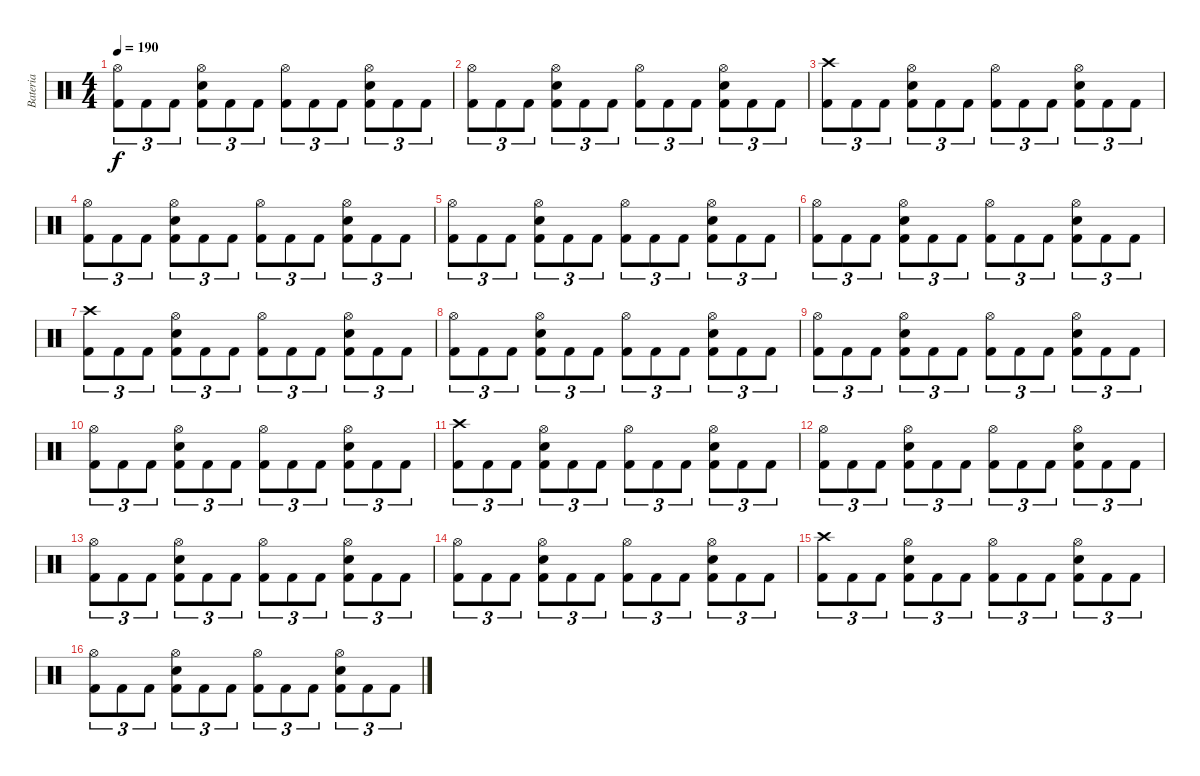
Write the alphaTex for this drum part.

\track ("Bateria" "Bateria") {instrument percussion}
\staff {score}
\articulation defaults
\ts (4 4)
\tempo 190
\clef neutral
\ks c
("Hi-Hat (open)" "Kick (hit) 2").8{tu (3 2) dy f} "Kick (hit) 2".8{tu (3 2)} "Kick (hit) 2".8{tu (3 2)} ("Hi-Hat (open)" "Electric Snare (hit)" "Kick (hit) 2").8{tu (3 2)} "Kick (hit) 2".8{tu (3 2)} "Kick (hit) 2".8{tu (3 2)} ("Hi-Hat (open)" "Kick (hit) 2").8{tu (3 2)} "Kick (hit) 2".8{tu (3 2)} "Kick (hit) 2".8{tu (3 2)} ("Hi-Hat (open)" "Electric Snare (hit)" "Kick (hit) 2").8{tu (3 2)} "Kick (hit) 2".8{tu (3 2)} "Kick (hit) 2".8{tu (3 2)} |
("Hi-Hat (open)" "Kick (hit) 2").8{tu (3 2)} "Kick (hit) 2".8{tu (3 2)} "Kick (hit) 2".8{tu (3 2)} ("Hi-Hat (open)" "Electric Snare (hit)" "Kick (hit) 2").8{tu (3 2)} "Kick (hit) 2".8{tu (3 2)} "Kick (hit) 2".8{tu (3 2)} ("Hi-Hat (open)" "Kick (hit) 2").8{tu (3 2)} "Kick (hit) 2".8{tu (3 2)} "Kick (hit) 2".8{tu (3 2)} ("Hi-Hat (open)" "Electric Snare (hit)" "Kick (hit) 2").8{tu (3 2)} "Kick (hit) 2".8{tu (3 2)} "Kick (hit) 2".8{tu (3 2)} |
("Crash high (hit)" "Kick (hit) 2").8{tu (3 2)} "Kick (hit) 2".8{tu (3 2)} "Kick (hit) 2".8{tu (3 2)} ("Hi-Hat (open)" "Electric Snare (hit)" "Kick (hit) 2").8{tu (3 2)} "Kick (hit) 2".8{tu (3 2)} "Kick (hit) 2".8{tu (3 2)} ("Hi-Hat (open)" "Kick (hit) 2").8{tu (3 2)} "Kick (hit) 2".8{tu (3 2)} "Kick (hit) 2".8{tu (3 2)} ("Hi-Hat (open)" "Electric Snare (hit)" "Kick (hit) 2").8{tu (3 2)} "Kick (hit) 2".8{tu (3 2)} "Kick (hit) 2".8{tu (3 2)} |
("Hi-Hat (open)" "Kick (hit) 2").8{tu (3 2)} "Kick (hit) 2".8{tu (3 2)} "Kick (hit) 2".8{tu (3 2)} ("Hi-Hat (open)" "Electric Snare (hit)" "Kick (hit) 2").8{tu (3 2)} "Kick (hit) 2".8{tu (3 2)} "Kick (hit) 2".8{tu (3 2)} ("Hi-Hat (open)" "Kick (hit) 2").8{tu (3 2)} "Kick (hit) 2".8{tu (3 2)} "Kick (hit) 2".8{tu (3 2)} ("Hi-Hat (open)" "Electric Snare (hit)" "Kick (hit) 2").8{tu (3 2)} "Kick (hit) 2".8{tu (3 2)} "Kick (hit) 2".8{tu (3 2)} |
("Hi-Hat (open)" "Kick (hit) 2").8{tu (3 2)} "Kick (hit) 2".8{tu (3 2)} "Kick (hit) 2".8{tu (3 2)} ("Hi-Hat (open)" "Electric Snare (hit)" "Kick (hit) 2").8{tu (3 2)} "Kick (hit) 2".8{tu (3 2)} "Kick (hit) 2".8{tu (3 2)} ("Hi-Hat (open)" "Kick (hit) 2").8{tu (3 2)} "Kick (hit) 2".8{tu (3 2)} "Kick (hit) 2".8{tu (3 2)} ("Hi-Hat (open)" "Electric Snare (hit)" "Kick (hit) 2").8{tu (3 2)} "Kick (hit) 2".8{tu (3 2)} "Kick (hit) 2".8{tu (3 2)} |
("Hi-Hat (open)" "Kick (hit) 2").8{tu (3 2)} "Kick (hit) 2".8{tu (3 2)} "Kick (hit) 2".8{tu (3 2)} ("Hi-Hat (open)" "Electric Snare (hit)" "Kick (hit) 2").8{tu (3 2)} "Kick (hit) 2".8{tu (3 2)} "Kick (hit) 2".8{tu (3 2)} ("Hi-Hat (open)" "Kick (hit) 2").8{tu (3 2)} "Kick (hit) 2".8{tu (3 2)} "Kick (hit) 2".8{tu (3 2)} ("Hi-Hat (open)" "Electric Snare (hit)" "Kick (hit) 2").8{tu (3 2)} "Kick (hit) 2".8{tu (3 2)} "Kick (hit) 2".8{tu (3 2)} |
("Crash high (hit)" "Kick (hit) 2").8{tu (3 2)} "Kick (hit) 2".8{tu (3 2)} "Kick (hit) 2".8{tu (3 2)} ("Hi-Hat (open)" "Electric Snare (hit)" "Kick (hit) 2").8{tu (3 2)} "Kick (hit) 2".8{tu (3 2)} "Kick (hit) 2".8{tu (3 2)} ("Hi-Hat (open)" "Kick (hit) 2").8{tu (3 2)} "Kick (hit) 2".8{tu (3 2)} "Kick (hit) 2".8{tu (3 2)} ("Hi-Hat (open)" "Electric Snare (hit)" "Kick (hit) 2").8{tu (3 2)} "Kick (hit) 2".8{tu (3 2)} "Kick (hit) 2".8{tu (3 2)} |
("Hi-Hat (open)" "Kick (hit) 2").8{tu (3 2)} "Kick (hit) 2".8{tu (3 2)} "Kick (hit) 2".8{tu (3 2)} ("Hi-Hat (open)" "Electric Snare (hit)" "Kick (hit) 2").8{tu (3 2)} "Kick (hit) 2".8{tu (3 2)} "Kick (hit) 2".8{tu (3 2)} ("Hi-Hat (open)" "Kick (hit) 2").8{tu (3 2)} "Kick (hit) 2".8{tu (3 2)} "Kick (hit) 2".8{tu (3 2)} ("Hi-Hat (open)" "Electric Snare (hit)" "Kick (hit) 2").8{tu (3 2)} "Kick (hit) 2".8{tu (3 2)} "Kick (hit) 2".8{tu (3 2)} |
("Hi-Hat (open)" "Kick (hit) 2").8{tu (3 2)} "Kick (hit) 2".8{tu (3 2)} "Kick (hit) 2".8{tu (3 2)} ("Hi-Hat (open)" "Electric Snare (hit)" "Kick (hit) 2").8{tu (3 2)} "Kick (hit) 2".8{tu (3 2)} "Kick (hit) 2".8{tu (3 2)} ("Hi-Hat (open)" "Kick (hit) 2").8{tu (3 2)} "Kick (hit) 2".8{tu (3 2)} "Kick (hit) 2".8{tu (3 2)} ("Hi-Hat (open)" "Electric Snare (hit)" "Kick (hit) 2").8{tu (3 2)} "Kick (hit) 2".8{tu (3 2)} "Kick (hit) 2".8{tu (3 2)} |
("Hi-Hat (open)" "Kick (hit) 2").8{tu (3 2)} "Kick (hit) 2".8{tu (3 2)} "Kick (hit) 2".8{tu (3 2)} ("Hi-Hat (open)" "Electric Snare (hit)" "Kick (hit) 2").8{tu (3 2)} "Kick (hit) 2".8{tu (3 2)} "Kick (hit) 2".8{tu (3 2)} ("Hi-Hat (open)" "Kick (hit) 2").8{tu (3 2)} "Kick (hit) 2".8{tu (3 2)} "Kick (hit) 2".8{tu (3 2)} ("Hi-Hat (open)" "Electric Snare (hit)" "Kick (hit) 2").8{tu (3 2)} "Kick (hit) 2".8{tu (3 2)} "Kick (hit) 2".8{tu (3 2)} |
("Crash high (hit)" "Kick (hit) 2").8{tu (3 2)} "Kick (hit) 2".8{tu (3 2)} "Kick (hit) 2".8{tu (3 2)} ("Hi-Hat (open)" "Electric Snare (hit)" "Kick (hit) 2").8{tu (3 2)} "Kick (hit) 2".8{tu (3 2)} "Kick (hit) 2".8{tu (3 2)} ("Hi-Hat (open)" "Kick (hit) 2").8{tu (3 2)} "Kick (hit) 2".8{tu (3 2)} "Kick (hit) 2".8{tu (3 2)} ("Hi-Hat (open)" "Electric Snare (hit)" "Kick (hit) 2").8{tu (3 2)} "Kick (hit) 2".8{tu (3 2)} "Kick (hit) 2".8{tu (3 2)} |
("Hi-Hat (open)" "Kick (hit) 2").8{tu (3 2)} "Kick (hit) 2".8{tu (3 2)} "Kick (hit) 2".8{tu (3 2)} ("Hi-Hat (open)" "Electric Snare (hit)" "Kick (hit) 2").8{tu (3 2)} "Kick (hit) 2".8{tu (3 2)} "Kick (hit) 2".8{tu (3 2)} ("Hi-Hat (open)" "Kick (hit) 2").8{tu (3 2)} "Kick (hit) 2".8{tu (3 2)} "Kick (hit) 2".8{tu (3 2)} ("Hi-Hat (open)" "Electric Snare (hit)" "Kick (hit) 2").8{tu (3 2)} "Kick (hit) 2".8{tu (3 2)} "Kick (hit) 2".8{tu (3 2)} |
("Hi-Hat (open)" "Kick (hit) 2").8{tu (3 2)} "Kick (hit) 2".8{tu (3 2)} "Kick (hit) 2".8{tu (3 2)} ("Hi-Hat (open)" "Electric Snare (hit)" "Kick (hit) 2").8{tu (3 2)} "Kick (hit) 2".8{tu (3 2)} "Kick (hit) 2".8{tu (3 2)} ("Hi-Hat (open)" "Kick (hit) 2").8{tu (3 2)} "Kick (hit) 2".8{tu (3 2)} "Kick (hit) 2".8{tu (3 2)} ("Hi-Hat (open)" "Electric Snare (hit)" "Kick (hit) 2").8{tu (3 2)} "Kick (hit) 2".8{tu (3 2)} "Kick (hit) 2".8{tu (3 2)} |
("Hi-Hat (open)" "Kick (hit) 2").8{tu (3 2)} "Kick (hit) 2".8{tu (3 2)} "Kick (hit) 2".8{tu (3 2)} ("Hi-Hat (open)" "Electric Snare (hit)" "Kick (hit) 2").8{tu (3 2)} "Kick (hit) 2".8{tu (3 2)} "Kick (hit) 2".8{tu (3 2)} ("Hi-Hat (open)" "Kick (hit) 2").8{tu (3 2)} "Kick (hit) 2".8{tu (3 2)} "Kick (hit) 2".8{tu (3 2)} ("Hi-Hat (open)" "Electric Snare (hit)" "Kick (hit) 2").8{tu (3 2)} "Kick (hit) 2".8{tu (3 2)} "Kick (hit) 2".8{tu (3 2)} |
("Crash high (hit)" "Kick (hit) 2").8{tu (3 2)} "Kick (hit) 2".8{tu (3 2)} "Kick (hit) 2".8{tu (3 2)} ("Hi-Hat (open)" "Electric Snare (hit)" "Kick (hit) 2").8{tu (3 2)} "Kick (hit) 2".8{tu (3 2)} "Kick (hit) 2".8{tu (3 2)} ("Hi-Hat (open)" "Kick (hit) 2").8{tu (3 2)} "Kick (hit) 2".8{tu (3 2)} "Kick (hit) 2".8{tu (3 2)} ("Hi-Hat (open)" "Electric Snare (hit)" "Kick (hit) 2").8{tu (3 2)} "Kick (hit) 2".8{tu (3 2)} "Kick (hit) 2".8{tu (3 2)} |
("Hi-Hat (open)" "Kick (hit) 2").8{tu (3 2)} "Kick (hit) 2".8{tu (3 2)} "Kick (hit) 2".8{tu (3 2)} ("Hi-Hat (open)" "Electric Snare (hit)" "Kick (hit) 2").8{tu (3 2)} "Kick (hit) 2".8{tu (3 2)} "Kick (hit) 2".8{tu (3 2)} ("Hi-Hat (open)" "Kick (hit) 2").8{tu (3 2)} "Kick (hit) 2".8{tu (3 2)} "Kick (hit) 2".8{tu (3 2)} ("Hi-Hat (open)" "Electric Snare (hit)" "Kick (hit) 2").8{tu (3 2)} "Kick (hit) 2".8{tu (3 2)} "Kick (hit) 2".8{tu (3 2)}
